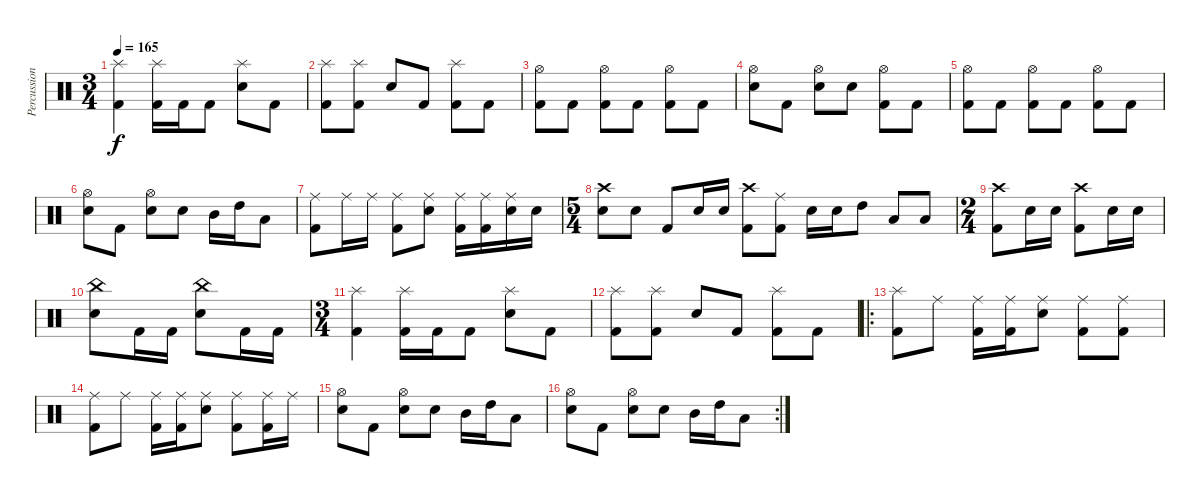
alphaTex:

\track ("Percussion" "Percussion") {instrument percussion}
\staff {score}
\articulation defaults
\ts (3 4)
\tempo 165
\clef neutral
\ks c
("Splash (hit)" "Kick (hit) 2").4{dy f} ("Splash (hit)" "Kick (hit) 2").16 "Kick (hit) 2".16 "Kick (hit) 2".8 ("Splash (hit)" "Electric Snare (hit)").8 "Kick (hit) 2".8 |
("Splash (hit)" "Kick (hit) 2").8 ("Splash (hit)" "Kick (hit) 2").8 "Electric Snare (hit)".8 "Kick (hit) 2".8 ("Splash (hit)" "Kick (hit) 2").8 "Kick (hit) 2".8 |
("Hi-Hat (open)" "Kick (hit) 2").8 "Kick (hit) 2".8 ("Hi-Hat (open)" "Kick (hit) 2").8 "Kick (hit) 2".8 ("Hi-Hat (open)" "Kick (hit) 2").8 "Kick (hit) 2".8 |
("Hi-Hat (open)" "Electric Snare (hit)").8 "Kick (hit) 2".8 ("Hi-Hat (open)" "Electric Snare (hit)").8 "Electric Snare (hit)".8 ("Hi-Hat (open)" "Kick (hit) 2").8 "Kick (hit) 2".8 |
("Hi-Hat (open)" "Kick (hit) 2").8 "Kick (hit) 2".8 ("Hi-Hat (open)" "Kick (hit) 2").8 "Kick (hit) 2".8 ("Hi-Hat (open)" "Kick (hit) 2").8 "Kick (hit) 2".8 |
("Hi-Hat (open)" "Electric Snare (hit)").8 "Kick (hit) 2".8 ("Hi-Hat (open)" "Electric Snare (hit)").8 "Electric Snare (hit)".8 "Mid Tom (hit)".16 "High Tom (hit)".16 "Low Tom (hit)".8 |
("Ride (middle)" "Kick (hit) 2").8 "Ride (middle)".16 "Ride (middle)".16 ("Ride (middle)" "Kick (hit) 2").8 ("Ride (middle)" "Electric Snare (hit)").8 ("Ride (middle)" "Kick (hit) 2").16 ("Ride (middle)" "Kick (hit) 2").16 ("Ride (middle)" "Electric Snare (hit)").16 "Electric Snare (hit)".16 |
\ts (5 4)
("Crash high (hit)" "Electric Snare (hit)").8 "Electric Snare (hit)".8 "Kick (hit) 2".8 "Electric Snare (hit)".16 "Electric Snare (hit)".16 ("Crash high (hit)" "Kick (hit) 2").8 ("Ride (middle)" "Kick (hit) 2").8 "Electric Snare (hit)".16 "Electric Snare (hit)".16 "High Tom (hit)".8 "Low Tom (hit)".8 "Low Floor Tom (hit)".8 |
\ts (2 4)
("Crash high (hit)" "Kick (hit) 2").8 "Electric Snare (hit)".16 "Electric Snare (hit)".16 ("Crash high (hit)" "Kick (hit) 2").8 "Electric Snare (hit)".16 "Electric Snare (hit)".16 |
("China (hit)" "Electric Snare (hit)").8 "Kick (hit) 2".16 "Kick (hit) 2".16 ("China (hit)" "Electric Snare (hit)").8 "Kick (hit) 2".16 "Kick (hit) 2".16 |
\ts (3 4)
("Splash (hit)" "Kick (hit) 2").4 ("Splash (hit)" "Kick (hit) 2").16 "Kick (hit) 2".16 "Kick (hit) 2".8 ("Splash (hit)" "Electric Snare (hit)").8 "Kick (hit) 2".8 |
("Splash (hit)" "Kick (hit) 2").8 ("Splash (hit)" "Kick (hit) 2").8 "Electric Snare (hit)".8 "Kick (hit) 2".8 ("Splash (hit)" "Kick (hit) 2").8 "Kick (hit) 2".8 |
\ro
("Splash (hit)" "Kick (hit) 2").8 "Ride (middle)".8 ("Ride (middle)" "Kick (hit) 2").16 ("Ride (middle)" "Kick (hit) 2").16 ("Ride (middle)" "Electric Snare (hit)").8 ("Ride (middle)" "Kick (hit) 2").8 ("Ride (middle)" "Kick (hit) 2").8 |
("Ride (middle)" "Kick (hit) 2").8 "Ride (middle)".8 ("Ride (middle)" "Kick (hit) 2").16 ("Ride (middle)" "Kick (hit) 2").16 ("Ride (middle)" "Electric Snare (hit)").8 ("Ride (middle)" "Kick (hit) 2").8 ("Ride (middle)" "Kick (hit) 2").16 "Ride (middle)".16 |
("Hi-Hat (open)" "Electric Snare (hit)").8 "Kick (hit) 2".8 ("Hi-Hat (open)" "Electric Snare (hit)").8 "Electric Snare (hit)".8 "Mid Tom (hit)".16 "High Tom (hit)".16 "Low Tom (hit)".8 |
\rc 2
("Hi-Hat (open)" "Electric Snare (hit)").8 "Kick (hit) 2".8 ("Hi-Hat (open)" "Electric Snare (hit)").8 "Electric Snare (hit)".8 "Mid Tom (hit)".16 "High Tom (hit)".16 "Low Tom (hit)".8
